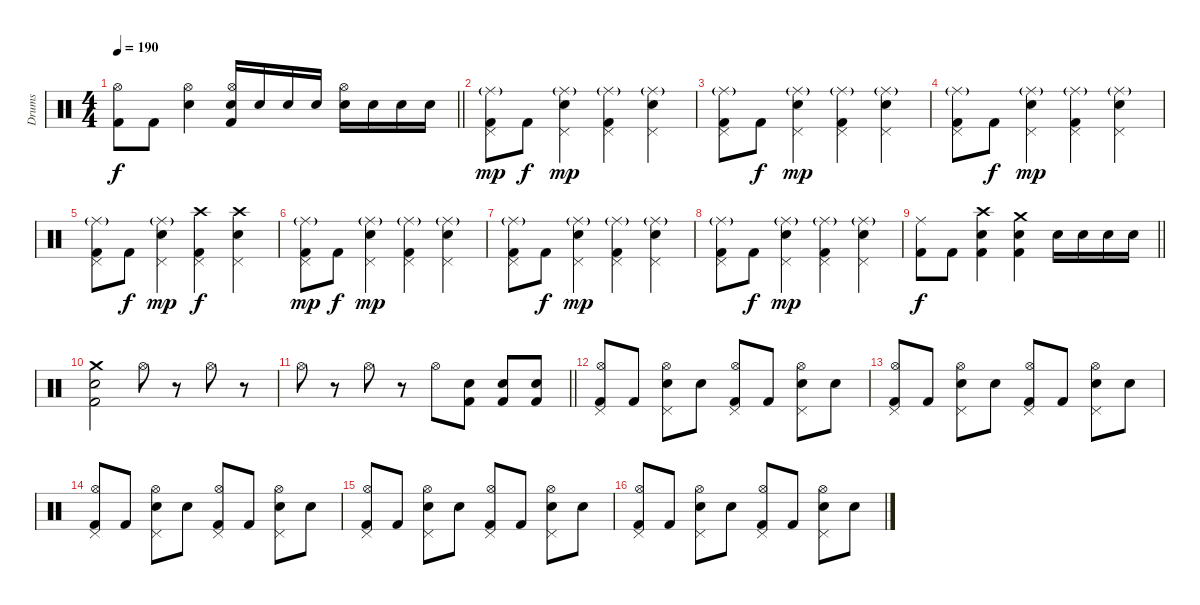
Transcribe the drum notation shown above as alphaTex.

\track ("Drums" "Drums") {instrument percussion}
\staff {score}
\articulation defaults
\ts (4 4)
\tempo 190
\clef neutral
\barLineRight lightlight
\ks c
("Kick (hit) 2" "Hi-Hat (open)").8{dy f} "Kick (hit) 2".8 ("Snare (hit) 2" "Hi-Hat (open)").4 ("Kick (hit) 2" "Snare (hit) 2" "Hi-Hat (open)").16 "Snare (hit) 2".16 "Snare (hit) 2".16 "Snare (hit) 2".16 ("Snare (hit) 2" "Hi-Hat (open)").16 "Snare (hit) 2".16 "Snare (hit) 2".16 "Snare (hit) 2".16 |
\section ("" "")
("Kick (hit) 2" "Pedal Hi-Hat (hit)" "Ride (middle)"{g}).8{dy mp} "Kick (hit) 2".8{dy f} ("Snare (hit) 2" "Pedal Hi-Hat (hit)" "Ride (middle)"{g}).4{dy mp} ("Kick (hit) 2" "Pedal Hi-Hat (hit)" "Ride (middle)"{g}).4 ("Snare (hit) 2" "Pedal Hi-Hat (hit)" "Ride (middle)"{g}).4 |
("Kick (hit) 2" "Pedal Hi-Hat (hit)" "Ride (middle)"{g}).8 "Kick (hit) 2".8{dy f} ("Snare (hit) 2" "Pedal Hi-Hat (hit)" "Ride (middle)"{g}).4{dy mp} ("Kick (hit) 2" "Pedal Hi-Hat (hit)" "Ride (middle)"{g}).4 ("Snare (hit) 2" "Pedal Hi-Hat (hit)" "Ride (middle)"{g}).4 |
("Kick (hit) 2" "Pedal Hi-Hat (hit)" "Ride (middle)"{g}).8 "Kick (hit) 2".8{dy f} ("Snare (hit) 2" "Pedal Hi-Hat (hit)" "Ride (middle)"{g}).4{dy mp} ("Kick (hit) 2" "Pedal Hi-Hat (hit)" "Ride (middle)"{g}).4 ("Snare (hit) 2" "Pedal Hi-Hat (hit)" "Ride (middle)"{g}).4 |
("Kick (hit) 2" "Pedal Hi-Hat (hit)" "Ride (middle)"{g}).8 "Kick (hit) 2".8{dy f} ("Snare (hit) 2" "Pedal Hi-Hat (hit)" "Ride (middle)"{g}).4{dy mp} ("Kick (hit) 2" "Pedal Hi-Hat (hit)" "Crash high (hit)").4{dy f} ("Snare (hit) 2" "Pedal Hi-Hat (hit)" "Crash high (hit)").4 |
("Kick (hit) 2" "Pedal Hi-Hat (hit)" "Ride (middle)"{g}).8{dy mp} "Kick (hit) 2".8{dy f} ("Snare (hit) 2" "Pedal Hi-Hat (hit)" "Ride (middle)"{g}).4{dy mp} ("Kick (hit) 2" "Pedal Hi-Hat (hit)" "Ride (middle)"{g}).4 ("Snare (hit) 2" "Pedal Hi-Hat (hit)" "Ride (middle)"{g}).4 |
("Kick (hit) 2" "Pedal Hi-Hat (hit)" "Ride (middle)"{g}).8 "Kick (hit) 2".8{dy f} ("Snare (hit) 2" "Pedal Hi-Hat (hit)" "Ride (middle)"{g}).4{dy mp} ("Kick (hit) 2" "Pedal Hi-Hat (hit)" "Ride (middle)"{g}).4 ("Snare (hit) 2" "Pedal Hi-Hat (hit)" "Ride (middle)"{g}).4 |
("Kick (hit) 2" "Pedal Hi-Hat (hit)" "Ride (middle)"{g}).8 "Kick (hit) 2".8{dy f} ("Snare (hit) 2" "Pedal Hi-Hat (hit)" "Ride (middle)"{g}).4{dy mp} ("Kick (hit) 2" "Pedal Hi-Hat (hit)" "Ride (middle)"{g}).4 ("Snare (hit) 2" "Pedal Hi-Hat (hit)" "Ride (middle)"{g}).4 |
\barLineRight lightlight
("Kick (hit) 2" "Ride (middle)").8{dy f} "Kick (hit) 2".8 ("Kick (hit) 2" "Snare (hit) 2" "Crash high (hit)").4 ("Kick (hit) 2" "Snare (hit) 2" "Crash medium (hit)").4 "Snare (hit) 2".16 "Snare (hit) 2".16 "Snare (hit) 2".16 "Snare (hit) 2".16 |
\section ("" "")
("Kick (hit) 2" "Snare (hit) 2" "Crash medium (hit)").2 "Hi-Hat (open)".8 r.8 "Hi-Hat (open)".8 r.8 |
\barLineRight lightlight "Hi-Hat (open)".8
r.8 "Hi-Hat (open)".8 r.8 "Hi-Hat (open)".8 ("Kick (hit) 2" "Snare (hit) 2").8 ("Kick (hit) 2" "Snare (hit) 2").8 ("Kick (hit) 2" "Snare (hit) 2").8 |
\section ("" "")
("Kick (hit) 2" "Hi-Hat (open)" "Pedal Hi-Hat (hit)").8 "Kick (hit) 2".8 ("Snare (hit) 2" "Hi-Hat (open)" "Pedal Hi-Hat (hit)").8 "Snare (hit) 2".8 ("Kick (hit) 2" "Hi-Hat (open)" "Pedal Hi-Hat (hit)").8 "Kick (hit) 2".8 ("Snare (hit) 2" "Hi-Hat (open)" "Pedal Hi-Hat (hit)").8 "Snare (hit) 2".8 |
("Kick (hit) 2" "Hi-Hat (open)" "Pedal Hi-Hat (hit)").8 "Kick (hit) 2".8 ("Snare (hit) 2" "Hi-Hat (open)" "Pedal Hi-Hat (hit)").8 "Snare (hit) 2".8 ("Kick (hit) 2" "Hi-Hat (open)" "Pedal Hi-Hat (hit)").8 "Kick (hit) 2".8 ("Snare (hit) 2" "Hi-Hat (open)" "Pedal Hi-Hat (hit)").8 "Snare (hit) 2".8 |
("Kick (hit) 2" "Hi-Hat (open)" "Pedal Hi-Hat (hit)").8 "Kick (hit) 2".8 ("Snare (hit) 2" "Hi-Hat (open)" "Pedal Hi-Hat (hit)").8 "Snare (hit) 2".8 ("Kick (hit) 2" "Hi-Hat (open)" "Pedal Hi-Hat (hit)").8 "Kick (hit) 2".8 ("Snare (hit) 2" "Hi-Hat (open)" "Pedal Hi-Hat (hit)").8 "Snare (hit) 2".8 |
("Kick (hit) 2" "Hi-Hat (open)" "Pedal Hi-Hat (hit)").8 "Kick (hit) 2".8 ("Snare (hit) 2" "Hi-Hat (open)" "Pedal Hi-Hat (hit)").8 "Snare (hit) 2".8 ("Kick (hit) 2" "Hi-Hat (open)" "Pedal Hi-Hat (hit)").8 "Kick (hit) 2".8 ("Snare (hit) 2" "Hi-Hat (open)" "Pedal Hi-Hat (hit)").8 "Snare (hit) 2".8 |
("Kick (hit) 2" "Hi-Hat (open)" "Pedal Hi-Hat (hit)").8 "Kick (hit) 2".8 ("Snare (hit) 2" "Hi-Hat (open)" "Pedal Hi-Hat (hit)").8 "Snare (hit) 2".8 ("Kick (hit) 2" "Hi-Hat (open)" "Pedal Hi-Hat (hit)").8 "Kick (hit) 2".8 ("Snare (hit) 2" "Hi-Hat (open)" "Pedal Hi-Hat (hit)").8 "Snare (hit) 2".8
